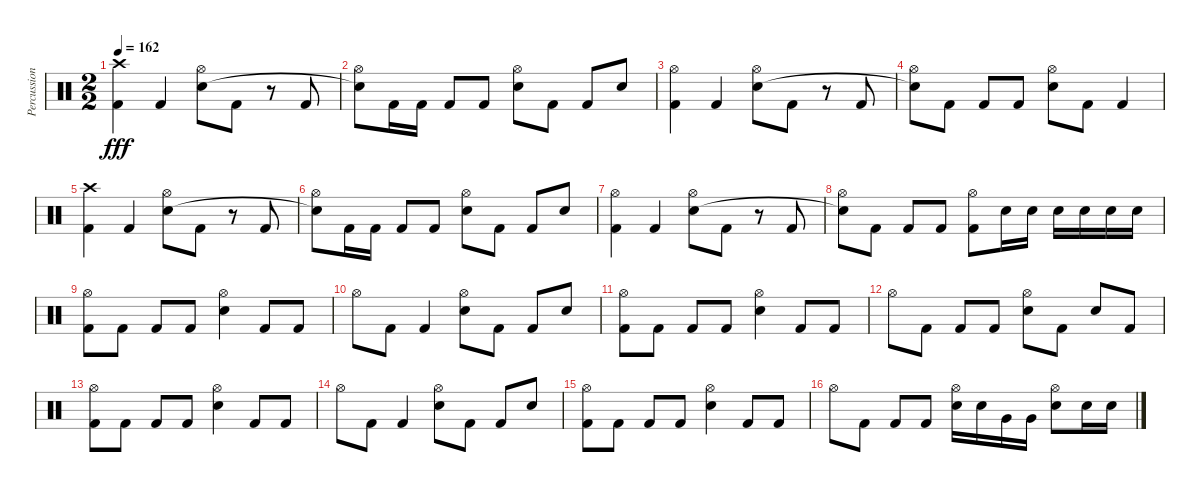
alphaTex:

\track ("Percussion" "Percussion") {instrument percussion}
\staff {score}
\articulation defaults
\ts (2 2)
\tempo 162
\clef neutral
\ks c
("Crash high (hit)" "Kick (hit) 2").4{dy fff} "Kick (hit) 2".4 ("Hi-Hat (open)" "Snare (hit) 2").8 "Kick (hit) 2".8 r.8 "Kick (hit) 2".8 |
("Hi-Hat (open)" "Snare (hit)"{t}).8 "Kick (hit) 2".16 "Kick (hit) 2".16 "Kick (hit) 2".8 "Kick (hit) 2".8 ("Hi-Hat (open)" "Snare (hit) 2").8 "Kick (hit) 2".8 "Kick (hit) 2".8 "Snare (hit) 2".8 |
("Hi-Hat (open)" "Kick (hit) 2").4 "Kick (hit) 2".4 ("Hi-Hat (open)" "Snare (hit) 2").8 "Kick (hit) 2".8 r.8 "Kick (hit) 2".8 |
("Hi-Hat (open)" "Snare (hit)"{t}).8 "Kick (hit) 2".8 "Kick (hit) 2".8 "Kick (hit) 2".8 ("Hi-Hat (open)" "Snare (hit) 2").8 "Kick (hit) 2".8 "Kick (hit) 2".4 |
("Crash high (hit)" "Kick (hit) 2").4 "Kick (hit) 2".4 ("Hi-Hat (open)" "Snare (hit) 2").8 "Kick (hit) 2".8 r.8 "Kick (hit) 2".8 |
("Hi-Hat (open)" "Snare (hit)"{t}).8 "Kick (hit) 2".16 "Kick (hit) 2".16 "Kick (hit) 2".8 "Kick (hit) 2".8 ("Hi-Hat (open)" "Snare (hit) 2").8 "Kick (hit) 2".8 "Kick (hit) 2".8 "Snare (hit) 2".8 |
("Hi-Hat (open)" "Kick (hit) 2").4 "Kick (hit) 2".4 ("Hi-Hat (open)" "Snare (hit) 2").8 "Kick (hit) 2".8 r.8 "Kick (hit) 2".8 |
("Hi-Hat (open)" "Snare (hit)"{t}).8 "Kick (hit) 2".8 "Kick (hit) 2".8 "Kick (hit) 2".8 ("Hi-Hat (open)" "Kick (hit) 2").8 "Snare (hit) 2".16 "Snare (hit) 2".16 "Snare (hit) 2".16 "Snare (hit) 2".16 "Snare (hit) 2".16 "Snare (hit) 2".16 |
("Hi-Hat (open)" "Kick (hit) 2").8 "Kick (hit) 2".8 "Kick (hit) 2".8 "Kick (hit) 2".8 ("Hi-Hat (open)" "Snare (hit) 2").4 "Kick (hit) 2".8 "Kick (hit) 2".8 |
"Hi-Hat (open)".8 "Kick (hit) 2".8 "Kick (hit) 2".4 ("Hi-Hat (open)" "Snare (hit) 2").8 "Kick (hit) 2".8 "Kick (hit) 2".8 "Snare (hit) 2".8 |
("Hi-Hat (open)" "Kick (hit) 2").8 "Kick (hit) 2".8 "Kick (hit) 2".8 "Kick (hit) 2".8 ("Hi-Hat (open)" "Snare (hit) 2").4 "Kick (hit) 2".8 "Kick (hit) 2".8 |
"Hi-Hat (open)".8 "Kick (hit) 2".8 "Kick (hit) 2".8 "Kick (hit) 2".8 ("Hi-Hat (open)" "Snare (hit) 2").8 "Kick (hit) 2".8 "Snare (hit) 2".8 "Kick (hit) 2".8 |
("Hi-Hat (open)" "Kick (hit) 2").8 "Kick (hit) 2".8 "Kick (hit) 2".8 "Kick (hit) 2".8 ("Hi-Hat (open)" "Snare (hit) 2").4 "Kick (hit) 2".8 "Kick (hit) 2".8 |
"Hi-Hat (open)".8 "Kick (hit) 2".8 "Kick (hit) 2".4 ("Hi-Hat (open)" "Snare (hit) 2").8 "Kick (hit) 2".8 "Kick (hit) 2".8 "Snare (hit) 2".8 |
("Hi-Hat (open)" "Kick (hit) 2").8 "Kick (hit) 2".8 "Kick (hit) 2".8 "Kick (hit) 2".8 ("Hi-Hat (open)" "Snare (hit) 2").4 "Kick (hit) 2".8 "Kick (hit) 2".8 |
"Hi-Hat (open)".8 "Kick (hit) 2".8 "Kick (hit) 2".8 "Kick (hit) 2".8 ("Hi-Hat (open)" "Snare (hit) 2").16 "Snare (hit) 2".16 "Very Low Tom (hit)".16 "Very Low Tom (hit)".16 ("Hi-Hat (open)" "Snare (hit) 2").8 "Snare (hit) 2".16 "Snare (hit) 2".16
